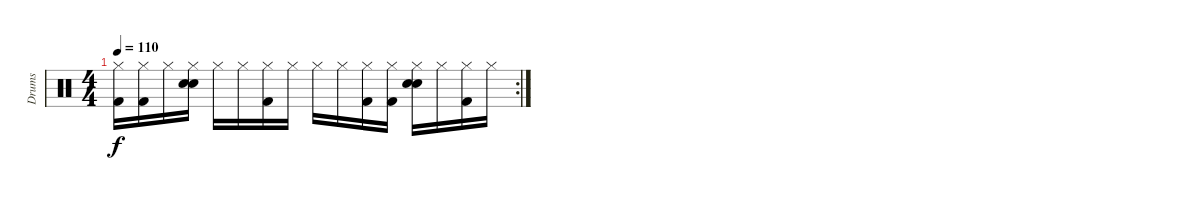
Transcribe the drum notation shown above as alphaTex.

\track ("Drums" "Drums") {instrument percussion}
\staff {score}
\articulation defaults
\rc 2
\ts (4 4)
\tempo 110
\clef neutral
\ks c
("Hi-Hat (closed)" "Kick (hit) 2").16{dy f} ("Hi-Hat (closed)" "Kick (hit) 2").16 "Hi-Hat (closed)".16 ("Hi-Hat (closed)" "Electric Snare (hit)" "Snare (hit) 2").16 "Hi-Hat (closed)".16 "Hi-Hat (closed)".16 ("Hi-Hat (closed)" "Kick (hit) 2").16 "Hi-Hat (closed)".16 "Hi-Hat (closed)".16 "Hi-Hat (closed)".16 ("Hi-Hat (closed)" "Kick (hit) 2").16 ("Hi-Hat (closed)" "Kick (hit) 2").16 ("Hi-Hat (closed)" "Electric Snare (hit)" "Snare (hit) 2").16 "Hi-Hat (closed)".16 ("Hi-Hat (closed)" "Kick (hit) 2").16 "Hi-Hat (closed)".16
